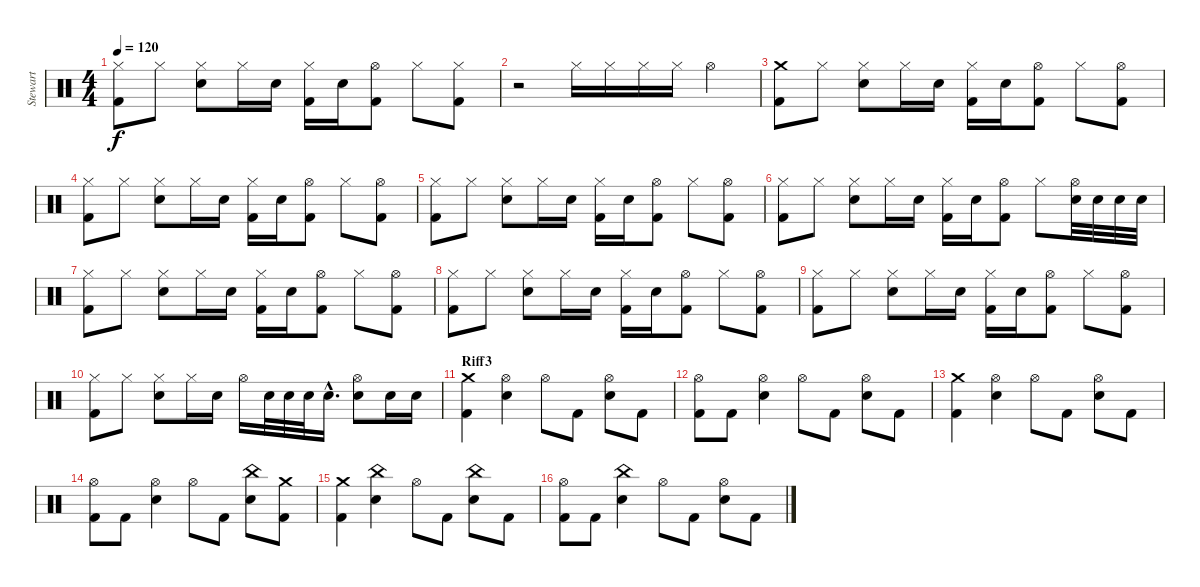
\track ("Stewart" "Stewart") {instrument percussion}
\staff {score}
\articulation defaults
\ts (4 4)
\tempo 120
\clef neutral
\ks c
("Hi-Hat (closed)" "Kick (hit) 2").8{dy f} "Hi-Hat (closed)".8 ("Hi-Hat (closed)" "Electric Snare (hit)").8 "Hi-Hat (closed)".16 "Electric Snare (hit)".16 ("Hi-Hat (closed)" "Kick (hit) 2").16 "Electric Snare (hit)".16 ("Hi-Hat (open)" "Kick (hit) 2").8 "Hi-Hat (closed)".8 ("Hi-Hat (closed)" "Kick (hit) 2").8 |
r.2 "Hi-Hat (closed)".16 "Hi-Hat (closed)".16 "Hi-Hat (closed)".16 "Hi-Hat (closed)".16 "Hi-Hat (open)".4 |
("Crash medium (hit)" "Kick (hit) 2").8 "Hi-Hat (closed)".8 ("Hi-Hat (closed)" "Electric Snare (hit)").8 "Hi-Hat (closed)".16 "Electric Snare (hit)".16 ("Hi-Hat (closed)" "Kick (hit) 2").16 "Electric Snare (hit)".16 ("Hi-Hat (open)" "Kick (hit) 2").8 "Hi-Hat (closed)".8 ("Hi-Hat (open)" "Kick (hit) 2").8 |
("Hi-Hat (closed)" "Kick (hit) 2").8 "Hi-Hat (closed)".8 ("Hi-Hat (closed)" "Electric Snare (hit)").8 "Hi-Hat (closed)".16 "Electric Snare (hit)".16 ("Hi-Hat (closed)" "Kick (hit) 2").16 "Electric Snare (hit)".16 ("Hi-Hat (open)" "Kick (hit) 2").8 "Hi-Hat (closed)".8 ("Hi-Hat (open)" "Kick (hit) 2").8 |
("Hi-Hat (closed)" "Kick (hit) 2").8 "Hi-Hat (closed)".8 ("Hi-Hat (closed)" "Electric Snare (hit)").8 "Hi-Hat (closed)".16 "Electric Snare (hit)".16 ("Hi-Hat (closed)" "Kick (hit) 2").16 "Electric Snare (hit)".16 ("Hi-Hat (open)" "Kick (hit) 2").8 "Hi-Hat (closed)".8 ("Hi-Hat (open)" "Kick (hit) 2").8 |
("Hi-Hat (closed)" "Kick (hit) 2").8 "Hi-Hat (closed)".8 ("Hi-Hat (closed)" "Electric Snare (hit)").8 "Hi-Hat (closed)".16 "Electric Snare (hit)".16 ("Hi-Hat (closed)" "Kick (hit) 2").16 "Electric Snare (hit)".16 ("Hi-Hat (open)" "Kick (hit) 2").8 "Hi-Hat (closed)".8 ("Hi-Hat (open)" "Electric Snare (hit)").32 "Electric Snare (hit)".32 "Electric Snare (hit)".32 "Electric Snare (hit)".32 |
("Hi-Hat (closed)" "Kick (hit) 2").8 "Hi-Hat (closed)".8 ("Hi-Hat (closed)" "Electric Snare (hit)").8 "Hi-Hat (closed)".16 "Electric Snare (hit)".16 ("Hi-Hat (closed)" "Kick (hit) 2").16 "Electric Snare (hit)".16 ("Hi-Hat (open)" "Kick (hit) 2").8 "Hi-Hat (closed)".8 ("Hi-Hat (open)" "Kick (hit) 2").8 |
("Hi-Hat (closed)" "Kick (hit) 2").8 "Hi-Hat (closed)".8 ("Hi-Hat (closed)" "Electric Snare (hit)").8 "Hi-Hat (closed)".16 "Electric Snare (hit)".16 ("Hi-Hat (closed)" "Kick (hit) 2").16 "Electric Snare (hit)".16 ("Hi-Hat (open)" "Kick (hit) 2").8 "Hi-Hat (closed)".8 ("Hi-Hat (open)" "Kick (hit) 2").8 |
("Hi-Hat (closed)" "Kick (hit) 2").8 "Hi-Hat (closed)".8 ("Hi-Hat (closed)" "Electric Snare (hit)").8 "Hi-Hat (closed)".16 "Electric Snare (hit)".16 ("Hi-Hat (closed)" "Kick (hit) 2").16 "Electric Snare (hit)".16 ("Hi-Hat (open)" "Kick (hit) 2").8 "Hi-Hat (closed)".8 ("Hi-Hat (open)" "Kick (hit) 2").8 |
("Hi-Hat (closed)" "Kick (hit) 2").8 "Hi-Hat (closed)".8 ("Hi-Hat (closed)" "Electric Snare (hit)").8 "Hi-Hat (closed)".16 "Electric Snare (hit)".16 "Hi-Hat (open)".16 "Electric Snare (hit)".32 "Electric Snare (hit)".32 "Electric Snare (hit)".32 "Electric Snare (hit)"{hac}.16{d} ("Hi-Hat (open)" "Electric Snare (hit)").8 "Electric Snare (hit)".16 "Electric Snare (hit)".16 |
\section ("" "Riff3")
("Crash medium (hit)" "Kick (hit) 2").4 ("Hi-Hat (open)" "Electric Snare (hit)").4 "Hi-Hat (open)".8 "Kick (hit) 2".8 ("Hi-Hat (open)" "Electric Snare (hit)").8 "Kick (hit) 2".8 |
("Hi-Hat (open)" "Kick (hit) 2").8 "Kick (hit) 2".8 ("Hi-Hat (open)" "Electric Snare (hit)").4 "Hi-Hat (open)".8 "Kick (hit) 2".8 ("Hi-Hat (open)" "Electric Snare (hit)").8 "Kick (hit) 2".8 |
("Crash medium (hit)" "Kick (hit) 2").4 ("Hi-Hat (open)" "Electric Snare (hit)").4 "Hi-Hat (open)".8 "Kick (hit) 2".8 ("Hi-Hat (open)" "Electric Snare (hit)").8 "Kick (hit) 2".8 |
("Hi-Hat (open)" "Kick (hit) 2").8 "Kick (hit) 2".8 ("Hi-Hat (open)" "Electric Snare (hit)").4 "Hi-Hat (open)".8 "Kick (hit) 2".8 ("China (hit)" "Electric Snare (hit)").8 ("Crash medium (hit)" "Kick (hit) 2").8 |
("Crash medium (hit)" "Kick (hit) 2").4 ("China (hit)" "Electric Snare (hit)").4 "Hi-Hat (open)".8 "Kick (hit) 2".8 ("China (hit)" "Electric Snare (hit)").8 "Kick (hit) 2".8 |
("Hi-Hat (open)" "Kick (hit) 2").8 "Kick (hit) 2".8 ("China (hit)" "Electric Snare (hit)").4 "Hi-Hat (open)".8 "Kick (hit) 2".8 ("Hi-Hat (open)" "Electric Snare (hit)").8 "Kick (hit) 2".8
